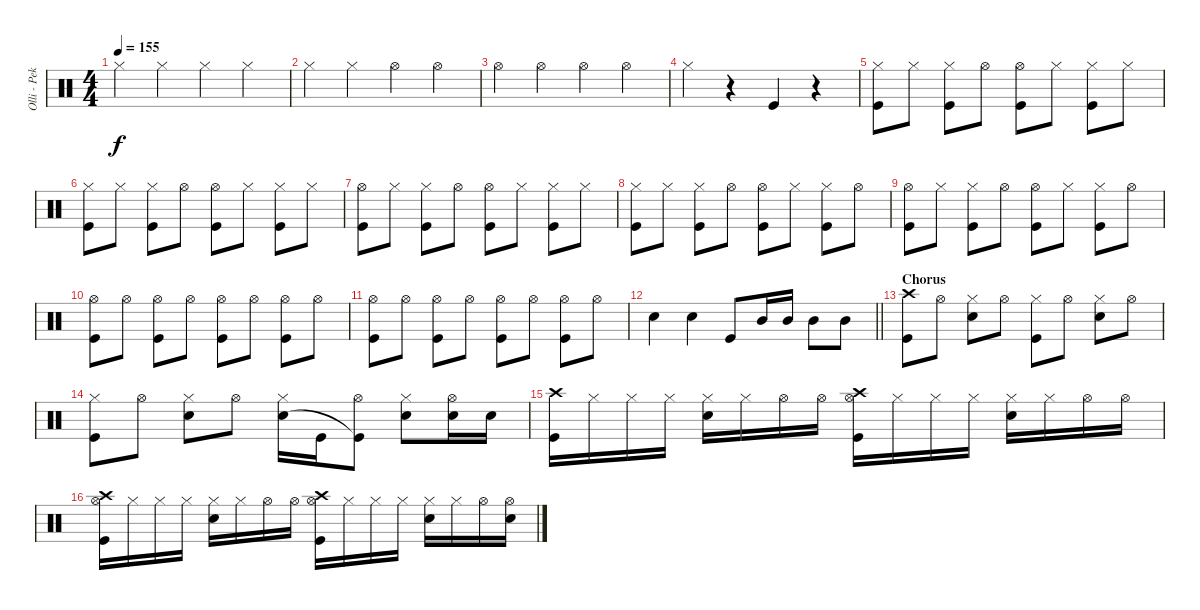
\track ("Olli - Pekka" "Olli - Pek") {instrument percussion}
\staff {score}
\articulation defaults
\ts (4 4)
\tempo 155
\clef neutral
\ks c "Hi-Hat (closed)".4{dy f} "Hi-Hat (closed)".4 "Hi-Hat (closed)".4 "Hi-Hat (closed)".4
|
"Hi-Hat (closed)".4 "Hi-Hat (closed)".4 "Hi-Hat (open)".4 "Hi-Hat (open)".4 |
"Hi-Hat (open)".4 "Hi-Hat (open)".4 "Hi-Hat (open)".4 "Hi-Hat (open)".4 |
"Hi-Hat (closed)".4 r.4 "Kick (hit)".4 r.4 |
("Hi-Hat (closed)" "Kick (hit)").8 "Hi-Hat (closed)".8 ("Hi-Hat (closed)" "Kick (hit)").8 "Hi-Hat (open)".8 ("Hi-Hat (open)" "Kick (hit)").8 "Hi-Hat (closed)".8 ("Hi-Hat (closed)" "Kick (hit)").8 "Hi-Hat (closed)".8 |
("Hi-Hat (closed)" "Kick (hit)").8 "Hi-Hat (closed)".8 ("Hi-Hat (closed)" "Kick (hit)").8 "Hi-Hat (open)".8 ("Hi-Hat (open)" "Kick (hit)").8 "Hi-Hat (closed)".8 ("Hi-Hat (closed)" "Kick (hit)").8 "Hi-Hat (closed)".8 |
("Hi-Hat (open)" "Kick (hit)").8 "Hi-Hat (closed)".8 ("Hi-Hat (closed)" "Kick (hit)").8 "Hi-Hat (open)".8 ("Hi-Hat (open)" "Kick (hit)").8 "Hi-Hat (closed)".8 ("Hi-Hat (closed)" "Kick (hit)").8 "Hi-Hat (closed)".8 |
("Hi-Hat (closed)" "Kick (hit)").8 "Hi-Hat (closed)".8 ("Hi-Hat (closed)" "Kick (hit)").8 "Hi-Hat (open)".8 ("Hi-Hat (open)" "Kick (hit)").8 "Hi-Hat (closed)".8 ("Hi-Hat (closed)" "Kick (hit)").8 "Hi-Hat (open)".8 |
("Hi-Hat (open)" "Kick (hit)").8{volume 13} "Hi-Hat (closed)".8 ("Hi-Hat (closed)" "Kick (hit)").8 "Hi-Hat (open)".8 ("Hi-Hat (open)" "Kick (hit)").8 "Hi-Hat (closed)".8 ("Hi-Hat (closed)" "Kick (hit)").8 "Hi-Hat (open)".8 |
("Hi-Hat (open)" "Kick (hit)").8 "Hi-Hat (open)".8 ("Hi-Hat (open)" "Kick (hit)").8 "Hi-Hat (open)".8 ("Hi-Hat (open)" "Kick (hit)").8 "Hi-Hat (open)".8 ("Hi-Hat (open)" "Kick (hit)").8 "Hi-Hat (open)".8 |
("Hi-Hat (open)" "Kick (hit)").8 "Hi-Hat (open)".8 ("Hi-Hat (open)" "Kick (hit)").8 "Hi-Hat (open)".8 ("Hi-Hat (open)" "Kick (hit)").8 "Hi-Hat (open)".8 ("Hi-Hat (open)" "Kick (hit)").8 "Hi-Hat (open)".8 |
\barLineRight lightlight "Snare (hit) 2".4 "Snare (hit) 2".4 "Kick (hit)".8 "Mid Tom (hit)".16 "Mid Tom (hit)".16 "Mid Tom (hit)".8 "Mid Tom (hit)".8
|
\section ("" "Chorus")
("Crash high (hit)" "Kick (hit)").8 "Hi-Hat (open)".8 ("Hi-Hat (closed)" "Snare (hit) 2").8 "Hi-Hat (open)".8 ("Hi-Hat (closed)" "Kick (hit)").8 "Hi-Hat (open)".8 ("Hi-Hat (closed)" "Snare (hit) 2").8 "Hi-Hat (open)".8 |
("Hi-Hat (closed)" "Kick (hit)").8 "Hi-Hat (open)".8 ("Hi-Hat (closed)" "Snare (hit) 2").8 "Hi-Hat (open)".8 ("Hi-Hat (closed)" "Snare (hit) 2").16 "Kick (hit)".16 ("Hi-Hat (open)" "Kick (hit)"{t}).8 ("Hi-Hat (closed)" "Snare (hit) 2").8 ("Hi-Hat (open)" "Snare (hit) 2").16 "Snare (hit) 2".16 |
("Crash high (hit)" "Kick (hit)").16 "Hi-Hat (closed)".16 "Hi-Hat (closed)".16 "Hi-Hat (closed)".16 ("Hi-Hat (closed)" "Snare (hit) 2").16 "Hi-Hat (closed)".16 "Hi-Hat (open)".16 "Hi-Hat (open)".16 ("Crash high (hit)" "Hi-Hat (open)" "Kick (hit)").16 "Hi-Hat (closed)".16 "Hi-Hat (closed)".16 "Hi-Hat (closed)".16 ("Hi-Hat (closed)" "Snare (hit) 2").16 "Hi-Hat (closed)".16 "Hi-Hat (open)".16 "Hi-Hat (open)".16 |
("Crash high (hit)" "Hi-Hat (open)" "Kick (hit)").16 "Hi-Hat (closed)".16 "Hi-Hat (closed)".16 "Hi-Hat (closed)".16 ("Hi-Hat (closed)" "Snare (hit) 2").16 "Hi-Hat (closed)".16 "Hi-Hat (open)".16 "Hi-Hat (open)".16 ("Crash high (hit)" "Hi-Hat (open)" "Kick (hit)").16 "Hi-Hat (closed)".16 "Hi-Hat (closed)".16 "Hi-Hat (closed)".16 ("Hi-Hat (closed)" "Snare (hit) 2").16 "Hi-Hat (closed)".16 "Hi-Hat (open)".16 ("Hi-Hat (open)" "Snare (hit) 2").16
